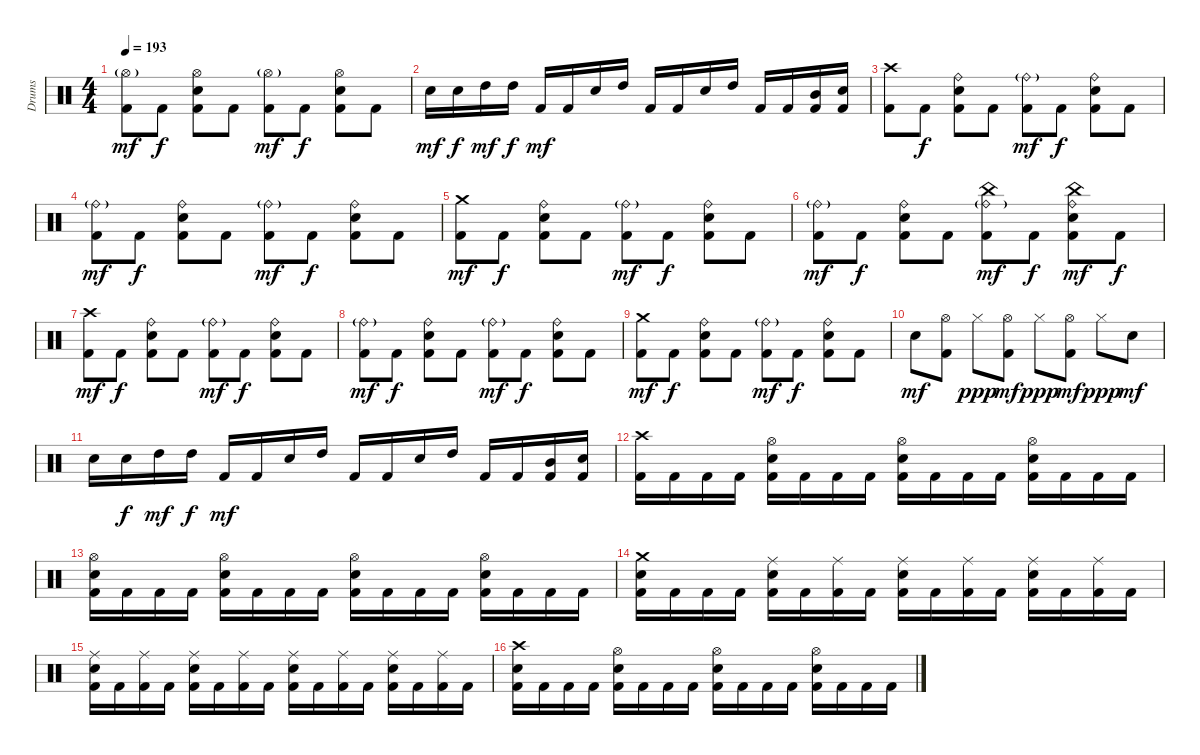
\track ("Drums" "Drums") {instrument percussion}
\staff {score}
\articulation defaults
\ts (4 4)
\tempo 193
\clef neutral
\ks c
("Hi-Hat (open)"{g} "Kick (hit) 2").8{dy mf} "Kick (hit) 2".8{dy f} ("Hi-Hat (open)" "Electric Snare (hit)" "Kick (hit) 2").8 "Kick (hit) 2".8 ("Hi-Hat (open)"{g} "Kick (hit) 2").8{dy mf} "Kick (hit) 2".8{dy f} ("Hi-Hat (open)" "Electric Snare (hit)" "Kick (hit) 2").8 "Kick (hit) 2".8 |
"Electric Snare (hit)".16{dy mf} "Electric Snare (hit)".16{dy f} "High Tom (hit)".16{dy mf} "High Tom (hit)".16{dy f} "Kick (hit) 2".16{dy mf} "Kick (hit) 2".16 "Electric Snare (hit)".16 "High Tom (hit)".16 "Kick (hit) 2".16 "Kick (hit) 2".16 "Electric Snare (hit)".16 "High Tom (hit)".16 "Kick (hit) 2".16 "Kick (hit) 2".16 ("Mid Tom (hit)" "Kick (hit) 2").16 ("Electric Snare (hit)" "Kick (hit) 2").16 |
("Crash high (hit)" "Kick (hit) 2").8 "Kick (hit) 2".8{dy f} ("Ride (bell)" "Electric Snare (hit)" "Kick (hit) 2").8 "Kick (hit) 2".8 ("Ride (bell)"{g} "Kick (hit) 2").8{dy mf} "Kick (hit) 2".8{dy f} ("Ride (bell)" "Electric Snare (hit)" "Kick (hit) 2").8 "Kick (hit) 2".8 |
("Ride (bell)"{g} "Kick (hit) 2").8{dy mf} "Kick (hit) 2".8{dy f} ("Ride (bell)" "Electric Snare (hit)" "Kick (hit) 2").8 "Kick (hit) 2".8 ("Ride (bell)"{g} "Kick (hit) 2").8{dy mf} "Kick (hit) 2".8{dy f} ("Ride (bell)" "Electric Snare (hit)" "Kick (hit) 2").8 "Kick (hit) 2".8 |
("Crash medium (hit)" "Kick (hit) 2").8{dy mf} "Kick (hit) 2".8{dy f} ("Ride (bell)" "Electric Snare (hit)" "Kick (hit) 2").8 "Kick (hit) 2".8 ("Ride (bell)"{g} "Kick (hit) 2").8{dy mf} "Kick (hit) 2".8{dy f} ("Ride (bell)" "Electric Snare (hit)" "Kick (hit) 2").8 "Kick (hit) 2".8 |
("Ride (bell)"{g} "Kick (hit) 2").8{dy mf} "Kick (hit) 2".8{dy f} ("Ride (bell)" "Electric Snare (hit)" "Kick (hit) 2").8 "Kick (hit) 2".8 ("China (hit)" "Ride (bell)"{g} "Kick (hit) 2").8{dy mf} "Kick (hit) 2".8{dy f} ("China (hit)" "Ride (bell)" "Electric Snare (hit)" "Kick (hit) 2").8{dy mf} "Kick (hit) 2".8{dy f} |
("Crash high (hit)" "Kick (hit) 2").8{dy mf} "Kick (hit) 2".8{dy f} ("Ride (bell)" "Electric Snare (hit)" "Kick (hit) 2").8 "Kick (hit) 2".8 ("Ride (bell)"{g} "Kick (hit) 2").8{dy mf} "Kick (hit) 2".8{dy f} ("Ride (bell)" "Electric Snare (hit)" "Kick (hit) 2").8 "Kick (hit) 2".8 |
("Ride (bell)"{g} "Kick (hit) 2").8{dy mf} "Kick (hit) 2".8{dy f} ("Ride (bell)" "Electric Snare (hit)" "Kick (hit) 2").8 "Kick (hit) 2".8 ("Ride (bell)"{g} "Kick (hit) 2").8{dy mf} "Kick (hit) 2".8{dy f} ("Ride (bell)" "Electric Snare (hit)" "Kick (hit) 2").8 "Kick (hit) 2".8 |
("Crash medium (hit)" "Kick (hit) 2").8{dy mf} "Kick (hit) 2".8{dy f} ("Ride (bell)" "Electric Snare (hit)" "Kick (hit) 2").8 "Kick (hit) 2".8 ("Ride (bell)"{g} "Kick (hit) 2").8{dy mf} "Kick (hit) 2".8{dy f} ("Ride (bell)" "Electric Snare (hit)" "Kick (hit) 2").8 "Kick (hit) 2".8 |
"Electric Snare (hit)".8{dy mf} ("Hi-Hat (open)" "Kick (hit) 2").8 "Hi-Hat (closed)".8{dy ppp} ("Hi-Hat (open)" "Kick (hit) 2").8{dy mf} "Hi-Hat (closed)".8{dy ppp} ("Hi-Hat (open)" "Kick (hit) 2").8{dy mf} "Hi-Hat (closed)".8{dy ppp} "Electric Snare (hit)".8{dy mf} |
"Electric Snare (hit)".16 "Electric Snare (hit)".16{dy f} "High Tom (hit)".16{dy mf} "High Tom (hit)".16{dy f} "Kick (hit) 2".16{dy mf} "Kick (hit) 2".16 "Electric Snare (hit)".16 "High Tom (hit)".16 "Kick (hit) 2".16 "Kick (hit) 2".16 "Electric Snare (hit)".16 "High Tom (hit)".16 "Kick (hit) 2".16 "Kick (hit) 2".16 ("Mid Tom (hit)" "Kick (hit) 2").16 ("Electric Snare (hit)" "Kick (hit) 2").16 |
("Crash high (hit)" "Kick (hit) 2").16 "Kick (hit) 2".16 "Kick (hit) 2".16 "Kick (hit) 2".16 ("Hi-Hat (open)" "Electric Snare (hit)" "Kick (hit) 2").16 "Kick (hit) 2".16 "Kick (hit) 2".16 "Kick (hit) 2".16 ("Hi-Hat (open)" "Electric Snare (hit)" "Kick (hit) 2").16 "Kick (hit) 2".16 "Kick (hit) 2".16 "Kick (hit) 2".16 ("Hi-Hat (open)" "Electric Snare (hit)" "Kick (hit) 2").16 "Kick (hit) 2".16 "Kick (hit) 2".16 "Kick (hit) 2".16 |
("Hi-Hat (open)" "Electric Snare (hit)" "Kick (hit) 2").16 "Kick (hit) 2".16 "Kick (hit) 2".16 "Kick (hit) 2".16 ("Hi-Hat (open)" "Electric Snare (hit)" "Kick (hit) 2").16 "Kick (hit) 2".16 "Kick (hit) 2".16 "Kick (hit) 2".16 ("Hi-Hat (open)" "Electric Snare (hit)" "Kick (hit) 2").16 "Kick (hit) 2".16 "Kick (hit) 2".16 "Kick (hit) 2".16 ("Hi-Hat (open)" "Electric Snare (hit)" "Kick (hit) 2").16 "Kick (hit) 2".16 "Kick (hit) 2".16 "Kick (hit) 2".16 |
("Crash medium (hit)" "Electric Snare (hit)" "Kick (hit) 2").16 "Kick (hit) 2".16 "Kick (hit) 2".16 "Kick (hit) 2".16 ("Ride (middle)" "Electric Snare (hit)" "Kick (hit) 2").16 "Kick (hit) 2".16 ("Ride (middle)" "Kick (hit) 2").16 "Kick (hit) 2".16 ("Ride (middle)" "Electric Snare (hit)" "Kick (hit) 2").16 "Kick (hit) 2".16 ("Ride (middle)" "Kick (hit) 2").16 "Kick (hit) 2".16 ("Ride (middle)" "Electric Snare (hit)" "Kick (hit) 2").16 "Kick (hit) 2".16 ("Ride (middle)" "Kick (hit) 2").16 "Kick (hit) 2".16 |
("Ride (middle)" "Electric Snare (hit)" "Kick (hit) 2").16 "Kick (hit) 2".16 ("Ride (middle)" "Kick (hit) 2").16 "Kick (hit) 2".16 ("Ride (middle)" "Electric Snare (hit)" "Kick (hit) 2").16 "Kick (hit) 2".16 ("Ride (middle)" "Kick (hit) 2").16 "Kick (hit) 2".16 ("Ride (middle)" "Electric Snare (hit)" "Kick (hit) 2").16 "Kick (hit) 2".16 ("Ride (middle)" "Kick (hit) 2").16 "Kick (hit) 2".16 ("Ride (middle)" "Electric Snare (hit)" "Kick (hit) 2").16 "Kick (hit) 2".16 ("Ride (middle)" "Kick (hit) 2").16 "Kick (hit) 2".16 |
("Crash high (hit)" "Electric Snare (hit)" "Kick (hit) 2").16 "Kick (hit) 2".16 "Kick (hit) 2".16 "Kick (hit) 2".16 ("Hi-Hat (open)" "Electric Snare (hit)" "Kick (hit) 2").16 "Kick (hit) 2".16 "Kick (hit) 2".16 "Kick (hit) 2".16 ("Hi-Hat (open)" "Electric Snare (hit)" "Kick (hit) 2").16 "Kick (hit) 2".16 "Kick (hit) 2".16 "Kick (hit) 2".16 ("Hi-Hat (open)" "Electric Snare (hit)" "Kick (hit) 2").16 "Kick (hit) 2".16 "Kick (hit) 2".16 "Kick (hit) 2".16
